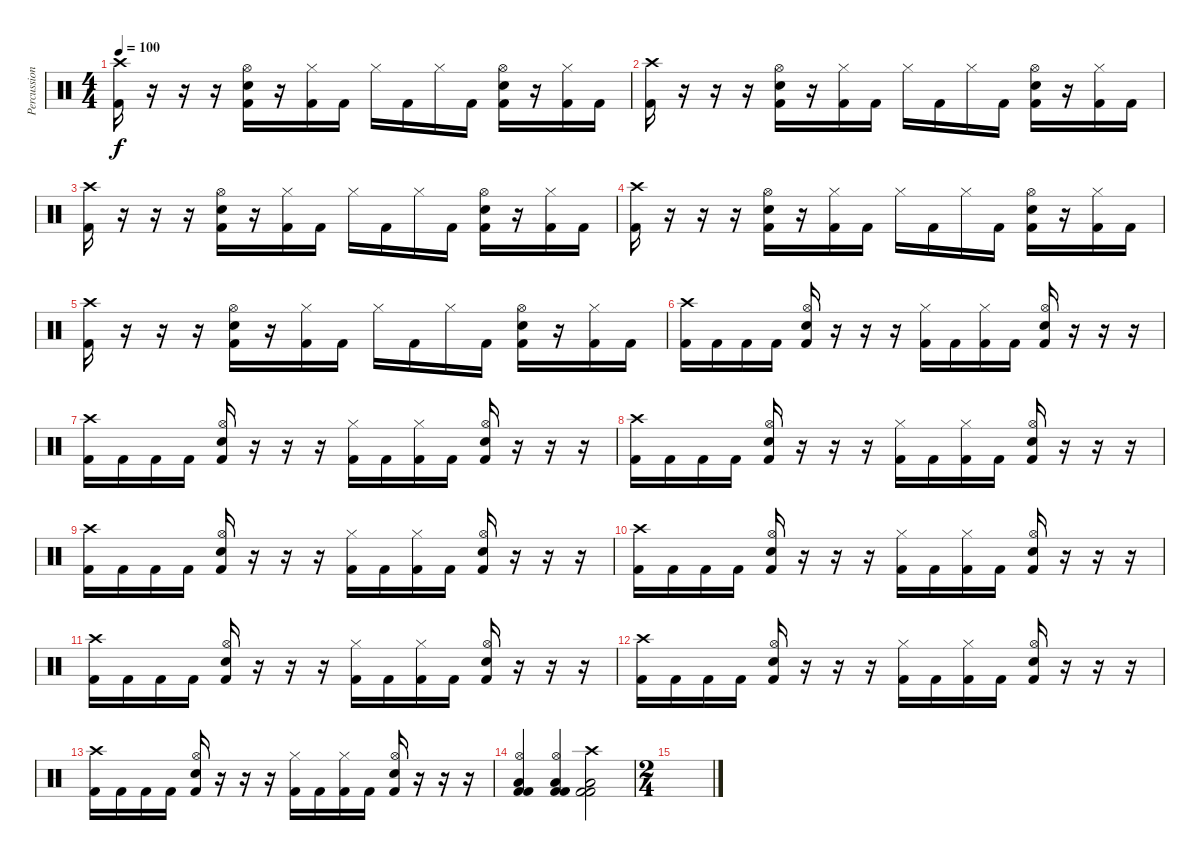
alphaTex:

\track ("Percussions" "Percussion") {instrument percussion}
\staff {score}
\articulation defaults
\ts (4 4)
\tempo 100
\clef neutral
\ks c
("Crash high (hit)" "Kick (hit) 2").16{dy f} r.16 r.16 r.16 ("Hi-Hat (open)" "Kick (hit) 2" "Snare (hit) 2").16 r.16 ("Hi-Hat (closed)" "Kick (hit) 2").16 "Kick (hit) 2".16 "Hi-Hat (closed)".16 "Kick (hit) 2".16 "Hi-Hat (closed)".16 "Kick (hit) 2".16 ("Hi-Hat (open)" "Kick (hit) 2" "Snare (hit) 2").16 r.16 ("Hi-Hat (closed)" "Kick (hit) 2").16 "Kick (hit) 2".16 |
("Crash high (hit)" "Kick (hit) 2").16 r.16 r.16 r.16 ("Hi-Hat (open)" "Kick (hit) 2" "Snare (hit) 2").16 r.16 ("Hi-Hat (closed)" "Kick (hit) 2").16 "Kick (hit) 2".16 "Hi-Hat (closed)".16 "Kick (hit) 2".16 "Hi-Hat (closed)".16 "Kick (hit) 2".16 ("Hi-Hat (open)" "Kick (hit) 2" "Snare (hit) 2").16 r.16 ("Hi-Hat (closed)" "Kick (hit) 2").16 "Kick (hit) 2".16 |
("Crash high (hit)" "Kick (hit) 2").16 r.16 r.16 r.16 ("Hi-Hat (open)" "Kick (hit) 2" "Snare (hit) 2").16 r.16 ("Hi-Hat (closed)" "Kick (hit) 2").16 "Kick (hit) 2".16 "Hi-Hat (closed)".16 "Kick (hit) 2".16 "Hi-Hat (closed)".16 "Kick (hit) 2".16 ("Hi-Hat (open)" "Kick (hit) 2" "Snare (hit) 2").16 r.16 ("Hi-Hat (closed)" "Kick (hit) 2").16 "Kick (hit) 2".16 |
("Crash high (hit)" "Kick (hit) 2").16 r.16 r.16 r.16 ("Hi-Hat (open)" "Kick (hit) 2" "Snare (hit) 2").16 r.16 ("Hi-Hat (closed)" "Kick (hit) 2").16 "Kick (hit) 2".16 "Hi-Hat (closed)".16 "Kick (hit) 2".16 "Hi-Hat (closed)".16 "Kick (hit) 2".16 ("Hi-Hat (open)" "Kick (hit) 2" "Snare (hit) 2").16 r.16 ("Hi-Hat (closed)" "Kick (hit) 2").16 "Kick (hit) 2".16 |
("Crash high (hit)" "Kick (hit) 2").16 r.16 r.16 r.16 ("Hi-Hat (open)" "Kick (hit) 2" "Snare (hit) 2").16 r.16 ("Hi-Hat (closed)" "Kick (hit) 2").16 "Kick (hit) 2".16 "Hi-Hat (closed)".16 "Kick (hit) 2".16 "Hi-Hat (closed)".16 "Kick (hit) 2".16 ("Hi-Hat (open)" "Kick (hit) 2" "Snare (hit) 2").16 r.16 ("Hi-Hat (closed)" "Kick (hit) 2").16 "Kick (hit) 2".16 |
("Crash high (hit)" "Kick (hit) 2").16 "Kick (hit) 2".16 "Kick (hit) 2".16 "Kick (hit) 2".16 ("Hi-Hat (open)" "Kick (hit) 2" "Snare (hit) 2").16 r.16 r.16 r.16 ("Hi-Hat (closed)" "Kick (hit) 2").16 "Kick (hit) 2".16 ("Hi-Hat (closed)" "Kick (hit) 2").16 "Kick (hit) 2".16 ("Hi-Hat (open)" "Kick (hit) 2" "Snare (hit) 2").16 r.16 r.16 r.16 |
("Crash high (hit)" "Kick (hit) 2").16 "Kick (hit) 2".16 "Kick (hit) 2".16 "Kick (hit) 2".16 ("Hi-Hat (open)" "Kick (hit) 2" "Snare (hit) 2").16 r.16 r.16 r.16 ("Hi-Hat (closed)" "Kick (hit) 2").16 "Kick (hit) 2".16 ("Hi-Hat (closed)" "Kick (hit) 2").16 "Kick (hit) 2".16 ("Hi-Hat (open)" "Kick (hit) 2" "Snare (hit) 2").16 r.16 r.16 r.16 |
("Crash high (hit)" "Kick (hit) 2").16 "Kick (hit) 2".16 "Kick (hit) 2".16 "Kick (hit) 2".16 ("Hi-Hat (open)" "Kick (hit) 2" "Snare (hit) 2").16 r.16 r.16 r.16 ("Hi-Hat (closed)" "Kick (hit) 2").16 "Kick (hit) 2".16 ("Hi-Hat (closed)" "Kick (hit) 2").16 "Kick (hit) 2".16 ("Hi-Hat (open)" "Kick (hit) 2" "Snare (hit) 2").16 r.16 r.16 r.16 |
("Crash high (hit)" "Kick (hit) 2").16 "Kick (hit) 2".16 "Kick (hit) 2".16 "Kick (hit) 2".16 ("Hi-Hat (open)" "Kick (hit) 2" "Snare (hit) 2").16 r.16 r.16 r.16 ("Hi-Hat (closed)" "Kick (hit) 2").16 "Kick (hit) 2".16 ("Hi-Hat (closed)" "Kick (hit) 2").16 "Kick (hit) 2".16 ("Hi-Hat (open)" "Kick (hit) 2" "Snare (hit) 2").16 r.16 r.16 r.16 |
("Crash high (hit)" "Kick (hit) 2").16 "Kick (hit) 2".16 "Kick (hit) 2".16 "Kick (hit) 2".16 ("Hi-Hat (open)" "Kick (hit) 2" "Snare (hit) 2").16 r.16 r.16 r.16 ("Hi-Hat (closed)" "Kick (hit) 2").16 "Kick (hit) 2".16 ("Hi-Hat (closed)" "Kick (hit) 2").16 "Kick (hit) 2".16 ("Hi-Hat (open)" "Kick (hit) 2" "Snare (hit) 2").16 r.16 r.16 r.16 |
("Crash high (hit)" "Kick (hit) 2").16 "Kick (hit) 2".16 "Kick (hit) 2".16 "Kick (hit) 2".16 ("Hi-Hat (open)" "Kick (hit) 2" "Snare (hit) 2").16 r.16 r.16 r.16 ("Hi-Hat (closed)" "Kick (hit) 2").16 "Kick (hit) 2".16 ("Hi-Hat (closed)" "Kick (hit) 2").16 "Kick (hit) 2".16 ("Hi-Hat (open)" "Kick (hit) 2" "Snare (hit) 2").16 r.16 r.16 r.16 |
("Crash high (hit)" "Kick (hit) 2").16 "Kick (hit) 2".16 "Kick (hit) 2".16 "Kick (hit) 2".16 ("Hi-Hat (open)" "Kick (hit) 2" "Snare (hit) 2").16 r.16 r.16 r.16 ("Hi-Hat (closed)" "Kick (hit) 2").16 "Kick (hit) 2".16 ("Hi-Hat (closed)" "Kick (hit) 2").16 "Kick (hit) 2".16 ("Hi-Hat (open)" "Kick (hit) 2" "Snare (hit) 2").16 r.16 r.16 r.16 |
("Crash high (hit)" "Kick (hit) 2").16 "Kick (hit) 2".16 "Kick (hit) 2".16 "Kick (hit) 2".16 ("Hi-Hat (open)" "Kick (hit) 2" "Snare (hit) 2").16 r.16 r.16 r.16 ("Hi-Hat (closed)" "Kick (hit) 2").16 "Kick (hit) 2".16 ("Hi-Hat (closed)" "Kick (hit) 2").16 "Kick (hit) 2".16 ("Hi-Hat (open)" "Kick (hit) 2" "Snare (hit) 2").16 r.16 r.16 r.16 |
("Hi-Hat (open)" "Kick (hit) 2" "Kick (hit) 2" "Low Tom (hit)").4 ("Hi-Hat (open)" "Kick (hit) 2" "Kick (hit) 2" "Low Tom (hit)").4 ("Crash high (hit)" "Kick (hit) 2" "Kick (hit) 2" "Low Tom (hit)").2 |
\ts (2 4)
